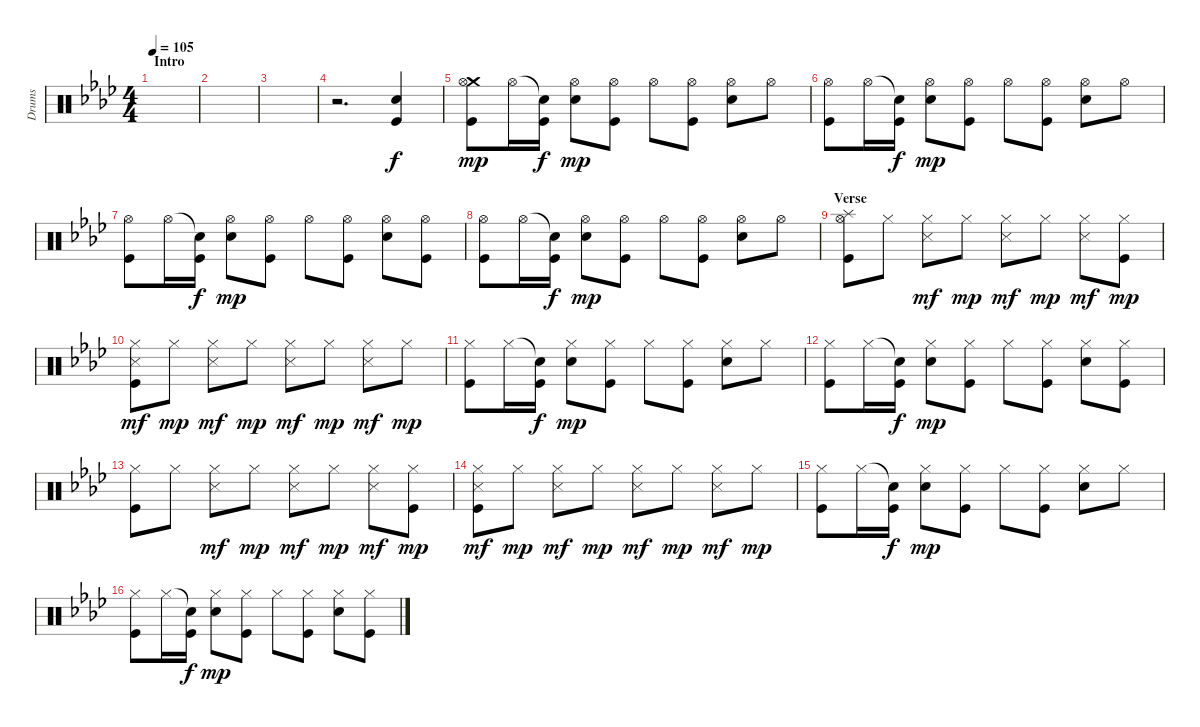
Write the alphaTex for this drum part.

\track ("Drums" "Drums") {instrument percussion}
\staff {score}
\articulation defaults
\ts (4 4)
\section ("" "Intro")
\tempo 105
\clef neutral
\ks ab
|
|
|
r.2{d} ("Electric Snare (hit)" "Kick (hit)").4 |
("Crash medium (hit)" "Hi-Hat (open)" "Kick (hit)").8{dy mp} "Hi-Hat (open)".16 ("Snare (hit)"{t} "Kick (hit)").16{dy f} ("Hi-Hat (open)" "Electric Snare (hit)").8{dy mp} ("Hi-Hat (open)" "Kick (hit)").8 "Hi-Hat (open)".8 ("Hi-Hat (open)" "Kick (hit)").8 ("Hi-Hat (open)" "Electric Snare (hit)").8 "Hi-Hat (open)".8 |
("Hi-Hat (open)" "Kick (hit)").8 "Hi-Hat (open)".16 ("Snare (hit)"{t} "Kick (hit)").16{dy f} ("Hi-Hat (open)" "Electric Snare (hit)").8{dy mp} ("Hi-Hat (open)" "Kick (hit)").8 "Hi-Hat (open)".8 ("Hi-Hat (open)" "Kick (hit)").8 ("Hi-Hat (open)" "Electric Snare (hit)").8 "Hi-Hat (open)".8 |
("Hi-Hat (open)" "Kick (hit)").8 "Hi-Hat (open)".16 ("Snare (hit)"{t} "Kick (hit)").16{dy f} ("Hi-Hat (open)" "Electric Snare (hit)").8{dy mp} ("Hi-Hat (open)" "Kick (hit)").8 "Hi-Hat (open)".8 ("Hi-Hat (open)" "Kick (hit)").8 ("Hi-Hat (open)" "Electric Snare (hit)").8 ("Hi-Hat (open)" "Kick (hit)").8 |
("Hi-Hat (open)" "Kick (hit)").8 "Hi-Hat (open)".16 ("Snare (hit)"{t} "Kick (hit)").16{dy f} ("Hi-Hat (open)" "Electric Snare (hit)").8{dy mp} ("Hi-Hat (open)" "Kick (hit)").8 "Hi-Hat (open)".8 ("Hi-Hat (open)" "Kick (hit)").8 ("Hi-Hat (open)" "Electric Snare (hit)").8 "Hi-Hat (open)".8 |
\section ("" "Verse")
("Splash (hit)" "Hi-Hat (open)" "Kick (hit)").8 "Hi-Hat (closed)".8 ("Hi-Hat (closed)" "Metronome (hit)").8{dy mf} "Hi-Hat (closed)".8{dy mp} ("Hi-Hat (closed)" "Metronome (hit)").8{dy mf} "Hi-Hat (closed)".8{dy mp} ("Hi-Hat (closed)" "Metronome (hit)").8{dy mf} ("Hi-Hat (closed)" "Kick (hit)").8{dy mp} |
("Hi-Hat (closed)" "Metronome (hit)" "Kick (hit)").8{dy mf} "Hi-Hat (closed)".8{dy mp} ("Hi-Hat (closed)" "Metronome (hit)").8{dy mf} "Hi-Hat (closed)".8{dy mp} ("Hi-Hat (closed)" "Metronome (hit)").8{dy mf} "Hi-Hat (closed)".8{dy mp} ("Hi-Hat (closed)" "Metronome (hit)").8{dy mf} "Hi-Hat (closed)".8{dy mp} |
("Hi-Hat (closed)" "Kick (hit)").8 "Hi-Hat (closed)".16 ("Snare (hit)"{t} "Kick (hit)").16{dy f} ("Hi-Hat (closed)" "Electric Snare (hit)").8{dy mp} ("Hi-Hat (closed)" "Kick (hit)").8 "Hi-Hat (closed)".8 ("Hi-Hat (closed)" "Kick (hit)").8 ("Hi-Hat (closed)" "Electric Snare (hit)").8 "Hi-Hat (closed)".8 |
("Hi-Hat (closed)" "Kick (hit)").8 "Hi-Hat (closed)".16 ("Snare (hit)"{t} "Kick (hit)").16{dy f} ("Hi-Hat (closed)" "Electric Snare (hit)").8{dy mp} ("Hi-Hat (closed)" "Kick (hit)").8 "Hi-Hat (closed)".8 ("Hi-Hat (closed)" "Kick (hit)").8 ("Hi-Hat (closed)" "Electric Snare (hit)").8 ("Hi-Hat (closed)" "Kick (hit)").8 |
("Hi-Hat (closed)" "Kick (hit)").8 "Hi-Hat (closed)".8 ("Hi-Hat (closed)" "Metronome (hit)").8{dy mf} "Hi-Hat (closed)".8{dy mp} ("Hi-Hat (closed)" "Metronome (hit)").8{dy mf} "Hi-Hat (closed)".8{dy mp} ("Hi-Hat (closed)" "Metronome (hit)").8{dy mf} ("Hi-Hat (closed)" "Kick (hit)").8{dy mp} |
("Hi-Hat (closed)" "Metronome (hit)" "Kick (hit)").8{dy mf} "Hi-Hat (closed)".8{dy mp} ("Hi-Hat (closed)" "Metronome (hit)").8{dy mf} "Hi-Hat (closed)".8{dy mp} ("Hi-Hat (closed)" "Metronome (hit)").8{dy mf} "Hi-Hat (closed)".8{dy mp} ("Hi-Hat (closed)" "Metronome (hit)").8{dy mf} "Hi-Hat (closed)".8{dy mp} |
("Hi-Hat (closed)" "Kick (hit)").8 "Hi-Hat (closed)".16 ("Snare (hit)"{t} "Kick (hit)").16{dy f} ("Hi-Hat (closed)" "Electric Snare (hit)").8{dy mp} ("Hi-Hat (closed)" "Kick (hit)").8 "Hi-Hat (closed)".8 ("Hi-Hat (closed)" "Kick (hit)").8 ("Hi-Hat (closed)" "Electric Snare (hit)").8 "Hi-Hat (closed)".8 |
("Hi-Hat (closed)" "Kick (hit)").8 "Hi-Hat (closed)".16 ("Snare (hit)"{t} "Kick (hit)").16{dy f} ("Hi-Hat (closed)" "Electric Snare (hit)").8{dy mp} ("Hi-Hat (closed)" "Kick (hit)").8 "Hi-Hat (closed)".8 ("Hi-Hat (closed)" "Kick (hit)").8 ("Hi-Hat (closed)" "Electric Snare (hit)").8 ("Hi-Hat (closed)" "Kick (hit)").8
